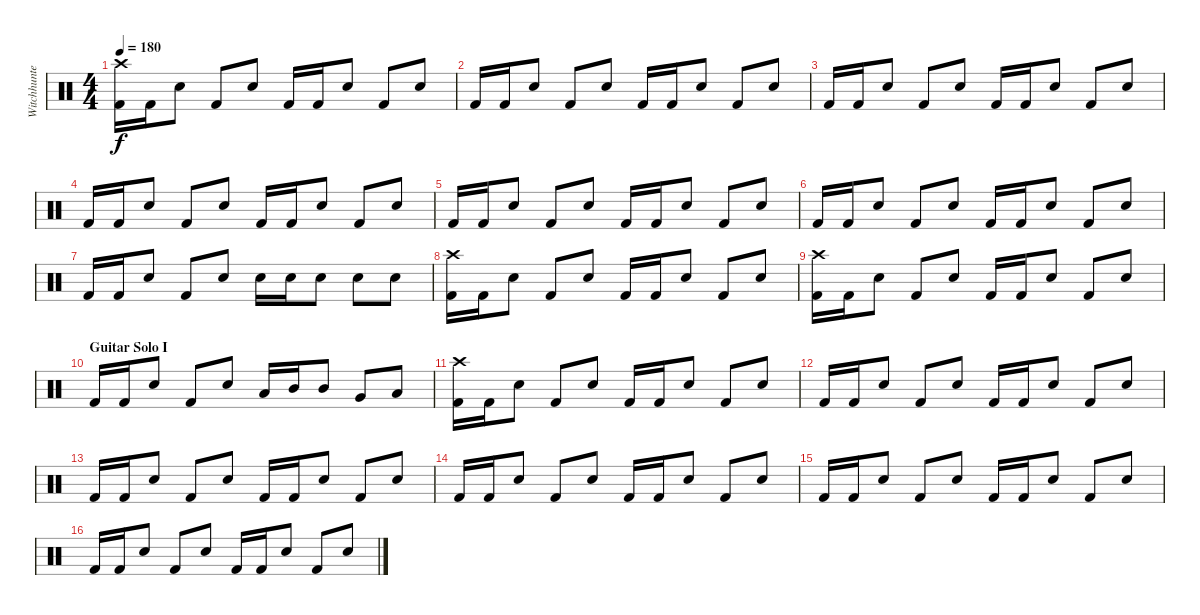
\track ("Witchhunter (Drums)" "Witchhunte") {instrument percussion}
\staff {score}
\articulation defaults
\ts (4 4)
\tempo 180
\clef neutral
\ks c
("Crash high (hit)" "Kick (hit) 2").16{dy f} "Kick (hit) 2".16 "Snare (hit) 2".8 "Kick (hit) 2".8 "Snare (hit) 2".8 "Kick (hit) 2".16 "Kick (hit) 2".16 "Snare (hit) 2".8 "Kick (hit) 2".8 "Snare (hit) 2".8 |
"Kick (hit) 2".16 "Kick (hit) 2".16 "Snare (hit) 2".8 "Kick (hit) 2".8 "Snare (hit) 2".8 "Kick (hit) 2".16 "Kick (hit) 2".16 "Snare (hit) 2".8 "Kick (hit) 2".8 "Snare (hit) 2".8 |
"Kick (hit) 2".16 "Kick (hit) 2".16 "Snare (hit) 2".8 "Kick (hit) 2".8 "Snare (hit) 2".8 "Kick (hit) 2".16 "Kick (hit) 2".16 "Snare (hit) 2".8 "Kick (hit) 2".8 "Snare (hit) 2".8 |
"Kick (hit) 2".16 "Kick (hit) 2".16 "Snare (hit) 2".8 "Kick (hit) 2".8 "Snare (hit) 2".8 "Kick (hit) 2".16 "Kick (hit) 2".16 "Snare (hit) 2".8 "Kick (hit) 2".8 "Snare (hit) 2".8 |
"Kick (hit) 2".16 "Kick (hit) 2".16 "Snare (hit) 2".8 "Kick (hit) 2".8 "Snare (hit) 2".8 "Kick (hit) 2".16 "Kick (hit) 2".16 "Snare (hit) 2".8 "Kick (hit) 2".8 "Snare (hit) 2".8 |
"Kick (hit) 2".16 "Kick (hit) 2".16 "Snare (hit) 2".8 "Kick (hit) 2".8 "Snare (hit) 2".8 "Kick (hit) 2".16 "Kick (hit) 2".16 "Snare (hit) 2".8 "Kick (hit) 2".8 "Snare (hit) 2".8 |
"Kick (hit) 2".16 "Kick (hit) 2".16 "Snare (hit) 2".8 "Kick (hit) 2".8 "Snare (hit) 2".8 "Snare (hit) 2".16 "Snare (hit) 2".16 "Snare (hit) 2".8 "Snare (hit) 2".8 "Snare (hit) 2".8 |
("Crash high (hit)" "Kick (hit) 2").16 "Kick (hit) 2".16 "Snare (hit) 2".8 "Kick (hit) 2".8 "Snare (hit) 2".8 "Kick (hit) 2".16 "Kick (hit) 2".16 "Snare (hit) 2".8 "Kick (hit) 2".8 "Snare (hit) 2".8 |
("Crash high (hit)" "Kick (hit) 2").16 "Kick (hit) 2".16 "Snare (hit) 2".8 "Kick (hit) 2".8 "Snare (hit) 2".8 "Kick (hit) 2".16 "Kick (hit) 2".16 "Snare (hit) 2".8 "Kick (hit) 2".8 "Snare (hit) 2".8 |
\section ("" "Guitar Solo I")
"Kick (hit) 2".16 "Kick (hit) 2".16 "Snare (hit) 2".8 "Kick (hit) 2".8 "Snare (hit) 2".8 "Low Tom (hit)".16 "Mid Tom (hit)".16 "Mid Tom (hit)".8 "Very Low Tom (hit)".8 "Low Tom (hit)".8 |
("Crash high (hit)" "Kick (hit) 2").16 "Kick (hit) 2".16 "Snare (hit) 2".8 "Kick (hit) 2".8 "Snare (hit) 2".8 "Kick (hit) 2".16 "Kick (hit) 2".16 "Snare (hit) 2".8 "Kick (hit) 2".8 "Snare (hit) 2".8 |
"Kick (hit) 2".16 "Kick (hit) 2".16 "Snare (hit) 2".8 "Kick (hit) 2".8 "Snare (hit) 2".8 "Kick (hit) 2".16 "Kick (hit) 2".16 "Snare (hit) 2".8 "Kick (hit) 2".8 "Snare (hit) 2".8 |
"Kick (hit) 2".16 "Kick (hit) 2".16 "Snare (hit) 2".8 "Kick (hit) 2".8 "Snare (hit) 2".8 "Kick (hit) 2".16 "Kick (hit) 2".16 "Snare (hit) 2".8 "Kick (hit) 2".8 "Snare (hit) 2".8 |
"Kick (hit) 2".16 "Kick (hit) 2".16 "Snare (hit) 2".8 "Kick (hit) 2".8 "Snare (hit) 2".8 "Kick (hit) 2".16 "Kick (hit) 2".16 "Snare (hit) 2".8 "Kick (hit) 2".8 "Snare (hit) 2".8 |
"Kick (hit) 2".16 "Kick (hit) 2".16 "Snare (hit) 2".8 "Kick (hit) 2".8 "Snare (hit) 2".8 "Kick (hit) 2".16 "Kick (hit) 2".16 "Snare (hit) 2".8 "Kick (hit) 2".8 "Snare (hit) 2".8 |
"Kick (hit) 2".16 "Kick (hit) 2".16 "Snare (hit) 2".8 "Kick (hit) 2".8 "Snare (hit) 2".8 "Kick (hit) 2".16 "Kick (hit) 2".16 "Snare (hit) 2".8 "Kick (hit) 2".8 "Snare (hit) 2".8
